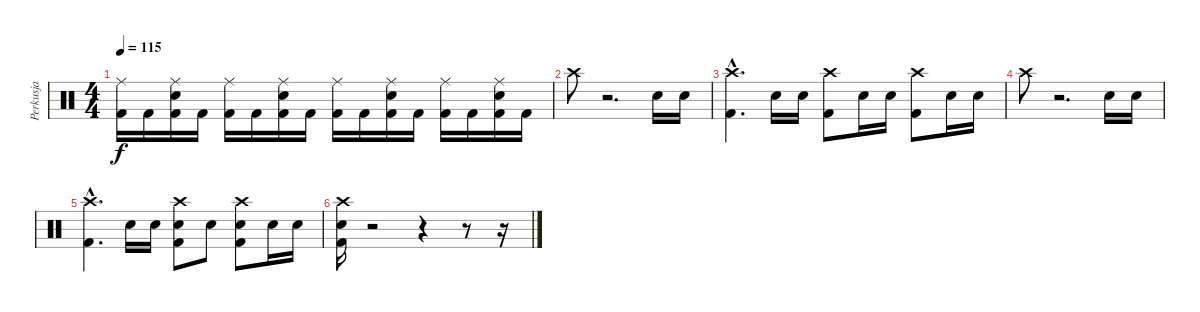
\track ("Perkusja" "Perkusja") {instrument percussion}
\staff {score}
\articulation defaults
\ts (4 4)
\tempo 115
\clef neutral
\ks c
("Ride (middle)" "Kick (hit) 2").16{dy f} "Kick (hit) 2".16 ("Ride (middle)" "Snare (hit) 2" "Kick (hit) 2").16 "Kick (hit) 2".16 ("Ride (middle)" "Kick (hit) 2").16 "Kick (hit) 2".16 ("Ride (middle)" "Snare (hit) 2" "Kick (hit) 2").16 "Kick (hit) 2".16 ("Ride (middle)" "Kick (hit) 2").16 "Kick (hit) 2".16 ("Ride (middle)" "Snare (hit) 2" "Kick (hit) 2").16 "Kick (hit) 2".16 ("Ride (middle)" "Kick (hit) 2").16 "Kick (hit) 2".16 ("Ride (middle)" "Snare (hit) 2" "Kick (hit) 2").16 "Kick (hit) 2".16 |
"Crash high (hit)".8 r.2{d} "Snare (hit) 2".16 "Snare (hit) 2".16 |
("Crash high (hit)"{hac} "Kick (hit) 2"{hac}).4{d} "Snare (hit) 2".16 "Snare (hit) 2".16 ("Crash high (hit)" "Kick (hit) 2").8 "Snare (hit) 2".16 "Snare (hit) 2".16 ("Crash high (hit)" "Kick (hit) 2").8 "Snare (hit) 2".16 "Snare (hit) 2".16 |
"Crash high (hit)".8 r.2{d} "Snare (hit) 2".16 "Snare (hit) 2".16 |
("Crash high (hit)"{hac} "Kick (hit) 2"{hac}).4{d} "Snare (hit) 2".16 "Snare (hit) 2".16 ("Crash high (hit)" "Snare (hit) 2" "Kick (hit) 2").8 "Snare (hit) 2".8 ("Crash high (hit)" "Snare (hit) 2" "Kick (hit) 2").8 "Snare (hit) 2".16 "Snare (hit) 2".16 |
("Crash high (hit)" "Snare (hit) 2" "Kick (hit) 2").16 r.2 r.4 r.8 r.16
